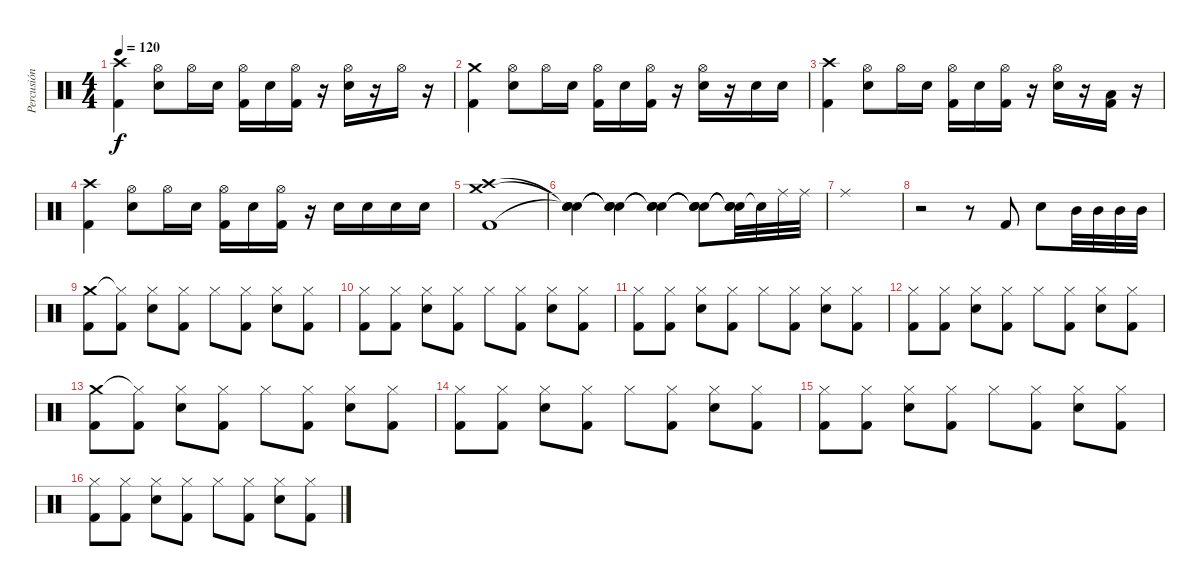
\track ("Percusión" "Percusión") {instrument percussion}
\staff {score}
\articulation defaults
\ts (4 4)
\tempo 120
\clef neutral
\ks c
("Crash high (hit)" "Kick (hit) 2").4{dy f} ("Hi-Hat (open)" "Electric Snare (hit)").8 "Hi-Hat (open)".16 "Electric Snare (hit)".16 ("Hi-Hat (open)" "Kick (hit) 2").16 "Electric Snare (hit)".16 ("Hi-Hat (open)" "Kick (hit) 2").16 r.16 ("Hi-Hat (open)" "Electric Snare (hit)").16 r.16 "Hi-Hat (open)".16 r.16 |
("Crash medium (hit)" "Kick (hit) 2").4 ("Hi-Hat (open)" "Electric Snare (hit)").8 "Hi-Hat (open)".16 "Electric Snare (hit)".16 ("Hi-Hat (open)" "Kick (hit) 2").16 "Electric Snare (hit)".16 ("Hi-Hat (open)" "Kick (hit) 2").16 r.16 ("Hi-Hat (open)" "Electric Snare (hit)").16 r.16 "Electric Snare (hit)".16 "Electric Snare (hit)".16 |
("Crash high (hit)" "Kick (hit) 2").4 ("Hi-Hat (open)" "Electric Snare (hit)").8 "Hi-Hat (open)".16 "Electric Snare (hit)".16 ("Hi-Hat (open)" "Kick (hit) 2").16 "Electric Snare (hit)".16 ("Hi-Hat (open)" "Kick (hit) 2").16 r.16 ("Hi-Hat (open)" "Electric Snare (hit)").16 r.16 ("Low Tom (hit)" "Kick (hit) 2").16 r.16 |
("Crash high (hit)" "Kick (hit) 2").4 ("Hi-Hat (open)" "Electric Snare (hit)").8 "Hi-Hat (open)".16 "Electric Snare (hit)".16 ("Hi-Hat (open)" "Kick (hit) 2").16 "Electric Snare (hit)".16 ("Hi-Hat (open)" "Kick (hit) 2").16 r.16 "Electric Snare (hit)".16 "Electric Snare (hit)".16 "Electric Snare (hit)".16 "Electric Snare (hit)".16 |
("Crash high (hit)" "Crash medium (hit)" "Kick (hit) 2").1 |
("Snare (hit)"{t} "Snare (hit)"{t} "Snare (hit)"{t}).4 ("Snare (hit)"{t} "Snare (hit)"{t} "Snare (hit)"{t}).4 ("Snare (hit)"{t} "Snare (hit)"{t} "Snare (hit)"{t}).4 ("Snare (hit)"{t} "Snare (hit)"{t} "Snare (hit)"{t}).8 ("Snare (hit)"{t} "Snare (hit)"{t} "Snare (hit)"{t}).32 "Snare (hit)"{t}.32 "Ride (middle)".32 "Ride (middle)".32 |
"Ride (middle)".1 |
r.2 r.8 "Kick (hit) 2".8 "Electric Snare (hit)".8 "Mid Tom (hit)".32 "Mid Tom (hit)".32 "Mid Tom (hit)".32 "Mid Tom (hit)".32 |
("Crash medium (hit)" "Kick (hit) 2").8 ("Hi-Hat (closed)"{t} "Kick (hit) 2").8 ("Hi-Hat (closed)" "Electric Snare (hit)").8 ("Hi-Hat (closed)" "Kick (hit) 2").8 "Hi-Hat (closed)".8 ("Hi-Hat (closed)" "Kick (hit) 2").8 ("Hi-Hat (closed)" "Electric Snare (hit)").8 ("Hi-Hat (closed)" "Kick (hit) 2").8 |
("Hi-Hat (closed)" "Kick (hit) 2").8 ("Hi-Hat (closed)" "Kick (hit) 2").8 ("Hi-Hat (closed)" "Electric Snare (hit)").8 ("Hi-Hat (closed)" "Kick (hit) 2").8 "Hi-Hat (closed)".8 ("Hi-Hat (closed)" "Kick (hit) 2").8 ("Hi-Hat (closed)" "Electric Snare (hit)").8 ("Hi-Hat (closed)" "Kick (hit) 2").8 |
("Hi-Hat (closed)" "Kick (hit) 2").8 ("Hi-Hat (closed)" "Kick (hit) 2").8 ("Hi-Hat (closed)" "Electric Snare (hit)").8 ("Hi-Hat (closed)" "Kick (hit) 2").8 "Hi-Hat (closed)".8 ("Hi-Hat (closed)" "Kick (hit) 2").8 ("Hi-Hat (closed)" "Electric Snare (hit)").8 ("Hi-Hat (closed)" "Kick (hit) 2").8 |
("Hi-Hat (closed)" "Kick (hit) 2").8 ("Hi-Hat (closed)" "Kick (hit) 2").8 ("Hi-Hat (closed)" "Electric Snare (hit)").8 ("Hi-Hat (closed)" "Kick (hit) 2").8 "Hi-Hat (closed)".8 ("Hi-Hat (closed)" "Kick (hit) 2").8 ("Hi-Hat (closed)" "Electric Snare (hit)").8 ("Hi-Hat (closed)" "Kick (hit) 2").8 |
("Crash medium (hit)" "Kick (hit) 2").8 ("Hi-Hat (closed)"{t} "Kick (hit) 2").8 ("Hi-Hat (closed)" "Electric Snare (hit)").8 ("Hi-Hat (closed)" "Kick (hit) 2").8 "Hi-Hat (closed)".8 ("Hi-Hat (closed)" "Kick (hit) 2").8 ("Hi-Hat (closed)" "Electric Snare (hit)").8 ("Hi-Hat (closed)" "Kick (hit) 2").8 |
("Hi-Hat (closed)" "Kick (hit) 2").8 ("Hi-Hat (closed)" "Kick (hit) 2").8 ("Hi-Hat (closed)" "Electric Snare (hit)").8 ("Hi-Hat (closed)" "Kick (hit) 2").8 "Hi-Hat (closed)".8 ("Hi-Hat (closed)" "Kick (hit) 2").8 ("Hi-Hat (closed)" "Electric Snare (hit)").8 ("Hi-Hat (closed)" "Kick (hit) 2").8 |
("Hi-Hat (closed)" "Kick (hit) 2").8 ("Hi-Hat (closed)" "Kick (hit) 2").8 ("Hi-Hat (closed)" "Electric Snare (hit)").8 ("Hi-Hat (closed)" "Kick (hit) 2").8 "Hi-Hat (closed)".8 ("Hi-Hat (closed)" "Kick (hit) 2").8 ("Hi-Hat (closed)" "Electric Snare (hit)").8 ("Hi-Hat (closed)" "Kick (hit) 2").8 |
("Hi-Hat (closed)" "Kick (hit) 2").8 ("Hi-Hat (closed)" "Kick (hit) 2").8 ("Hi-Hat (closed)" "Electric Snare (hit)").8 ("Hi-Hat (closed)" "Kick (hit) 2").8 "Hi-Hat (closed)".8 ("Hi-Hat (closed)" "Kick (hit) 2").8 ("Hi-Hat (closed)" "Electric Snare (hit)").8 ("Hi-Hat (closed)" "Kick (hit) 2").8
